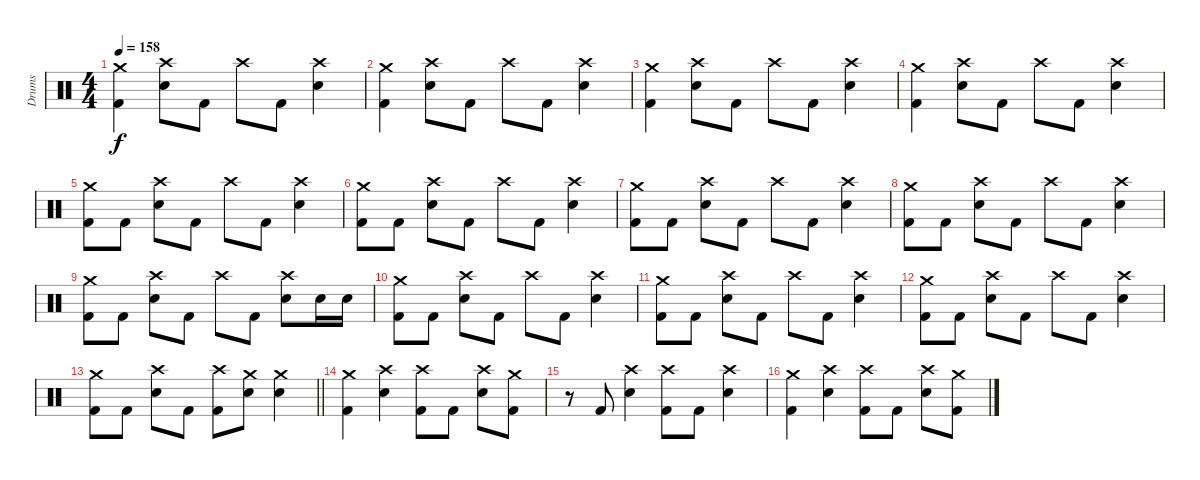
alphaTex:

\track ("Drums" "Drums") {instrument percussion}
\staff {score}
\articulation defaults
\ts (4 4)
\tempo 158
\clef neutral
\ks c
("Crash medium (hit)" "Kick (hit) 2").4{dy f} ("Crash high (hit)" "Electric Snare (hit)").8 "Kick (hit) 2".8 "Crash high (hit)".8 "Kick (hit) 2".8 ("Crash high (hit)" "Electric Snare (hit)").4 |
("Crash medium (hit)" "Kick (hit) 2").4 ("Crash high (hit)" "Electric Snare (hit)").8 "Kick (hit) 2".8 "Crash high (hit)".8 "Kick (hit) 2".8 ("Crash high (hit)" "Electric Snare (hit)").4 |
("Crash medium (hit)" "Kick (hit) 2").4 ("Crash high (hit)" "Electric Snare (hit)").8 "Kick (hit) 2".8 "Crash high (hit)".8 "Kick (hit) 2".8 ("Crash high (hit)" "Electric Snare (hit)").4 |
("Crash medium (hit)" "Kick (hit) 2").4 ("Crash high (hit)" "Electric Snare (hit)").8 "Kick (hit) 2".8 "Crash high (hit)".8 "Kick (hit) 2".8 ("Crash high (hit)" "Electric Snare (hit)").4 |
("Crash medium (hit)" "Kick (hit) 2").8 "Kick (hit) 2".8 ("Crash high (hit)" "Electric Snare (hit)").8 "Kick (hit) 2".8 "Crash high (hit)".8 "Kick (hit) 2".8 ("Crash high (hit)" "Electric Snare (hit)").4 |
("Crash medium (hit)" "Kick (hit) 2").8 "Kick (hit) 2".8 ("Crash high (hit)" "Electric Snare (hit)").8 "Kick (hit) 2".8 "Crash high (hit)".8 "Kick (hit) 2".8 ("Crash high (hit)" "Electric Snare (hit)").4 |
("Crash medium (hit)" "Kick (hit) 2").8 "Kick (hit) 2".8 ("Crash high (hit)" "Electric Snare (hit)").8 "Kick (hit) 2".8 "Crash high (hit)".8 "Kick (hit) 2".8 ("Crash high (hit)" "Electric Snare (hit)").4 |
("Crash medium (hit)" "Kick (hit) 2").8 "Kick (hit) 2".8 ("Crash high (hit)" "Electric Snare (hit)").8 "Kick (hit) 2".8 "Crash high (hit)".8 "Kick (hit) 2".8 ("Crash high (hit)" "Electric Snare (hit)").4 |
("Crash medium (hit)" "Kick (hit) 2").8 "Kick (hit) 2".8 ("Crash high (hit)" "Electric Snare (hit)").8 "Kick (hit) 2".8 "Crash high (hit)".8 "Kick (hit) 2".8 ("Crash high (hit)" "Electric Snare (hit)").8 "Electric Snare (hit)".16 "Electric Snare (hit)".16 |
("Crash medium (hit)" "Kick (hit) 2").8 "Kick (hit) 2".8 ("Crash high (hit)" "Electric Snare (hit)").8 "Kick (hit) 2".8 "Crash high (hit)".8 "Kick (hit) 2".8 ("Crash high (hit)" "Electric Snare (hit)").4 |
("Crash medium (hit)" "Kick (hit) 2").8 "Kick (hit) 2".8 ("Crash high (hit)" "Electric Snare (hit)").8 "Kick (hit) 2".8 "Crash high (hit)".8 "Kick (hit) 2".8 ("Crash high (hit)" "Electric Snare (hit)").4 |
("Crash medium (hit)" "Kick (hit) 2").8 "Kick (hit) 2".8 ("Crash high (hit)" "Electric Snare (hit)").8 "Kick (hit) 2".8 "Crash high (hit)".8 "Kick (hit) 2".8 ("Crash high (hit)" "Electric Snare (hit)").4 |
\barLineRight lightlight
("Crash medium (hit)" "Kick (hit) 2").8 "Kick (hit) 2".8 ("Crash high (hit)" "Electric Snare (hit)").8 "Kick (hit) 2".8 ("Crash high (hit)" "Kick (hit) 2").8 ("Crash medium (hit)" "Electric Snare (hit)").8 ("Crash medium (hit)" "Electric Snare (hit)").4 |
("Crash medium (hit)" "Kick (hit) 2").4 ("Crash high (hit)" "Electric Snare (hit)").4 ("Crash high (hit)" "Kick (hit) 2").8 "Kick (hit) 2".8 ("Crash high (hit)" "Electric Snare (hit)").8 ("Crash medium (hit)" "Kick (hit) 2").8 |
r.8 "Kick (hit) 2".8 ("Crash high (hit)" "Electric Snare (hit)").4 ("Crash high (hit)" "Kick (hit) 2").8 "Kick (hit) 2".8 ("Crash high (hit)" "Electric Snare (hit)").4 |
("Crash medium (hit)" "Kick (hit) 2").4 ("Crash high (hit)" "Electric Snare (hit)").4 ("Crash high (hit)" "Kick (hit) 2").8 "Kick (hit) 2".8 ("Crash high (hit)" "Electric Snare (hit)").8 ("Crash medium (hit)" "Kick (hit) 2").8
